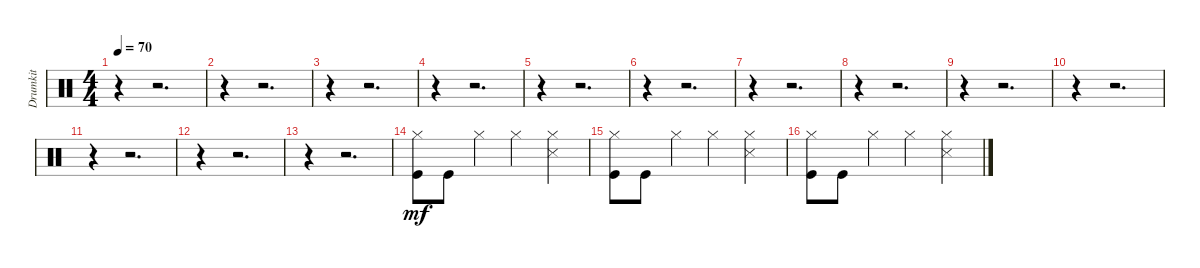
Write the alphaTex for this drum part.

\track ("Drumkit" "Drumkit") {instrument percussion}
\staff {score}
\articulation defaults
\ts (4 4)
\tempo 70
\clef neutral
\ks c
r.4{dy mf} r.2{d} |
r.4 r.2{d} |
r.4 r.2{d} |
r.4 r.2{d} |
r.4 r.2{d} |
r.4 r.2{d} |
r.4 r.2{d} |
r.4 r.2{d} |
r.4 r.2{d} |
r.4 r.2{d} |
r.4 r.2{d} |
r.4 r.2{d} |
r.4 r.2{d} |
("Hi-Hat (closed)" "Kick (hit)").8 "Kick (hit)".8 "Hi-Hat (closed)".4 "Hi-Hat (closed)".4 ("Hi-Hat (closed)" "Snare (side stick) 3").4 |
("Hi-Hat (closed)" "Kick (hit)").8 "Kick (hit)".8 "Hi-Hat (closed)".4 "Hi-Hat (closed)".4 ("Hi-Hat (closed)" "Snare (side stick) 3").4 |
("Hi-Hat (closed)" "Kick (hit)").8 "Kick (hit)".8 "Hi-Hat (closed)".4 "Hi-Hat (closed)".4 ("Hi-Hat (closed)" "Snare (side stick) 3").4
